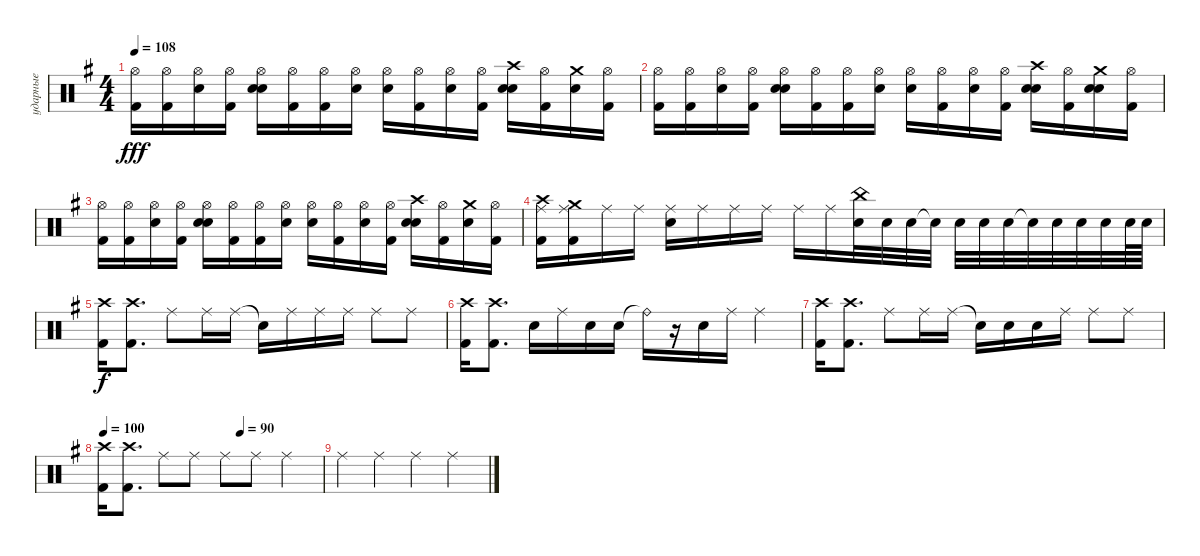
\track ("ударные" "ударные") {instrument percussion}
\staff {score}
\articulation defaults
\ts (4 4)
\tempo 108
\clef neutral
\ks eminor
("Hi-Hat (open)" "Kick (hit) 2").16{dy fff} ("Hi-Hat (open)" "Kick (hit) 2").16 ("Hi-Hat (open)" "Snare (hit)").16 ("Hi-Hat (open)" "Kick (hit) 2").16 ("Hi-Hat (open)" "Snare (hit) 2" "Snare (hit)").16 ("Hi-Hat (open)" "Kick (hit) 2").16 ("Hi-Hat (open)" "Kick (hit) 2").16 ("Hi-Hat (open)" "Snare (hit)").16 ("Hi-Hat (open)" "Snare (hit)").16 ("Hi-Hat (open)" "Kick (hit) 2").16 ("Hi-Hat (open)" "Snare (hit)").16 ("Hi-Hat (open)" "Kick (hit) 2").16 ("Crash high (hit)" "Snare (hit) 2" "Snare (hit)").16 ("Hi-Hat (open)" "Kick (hit) 2").16 ("Crash medium (hit)" "Snare (hit)").16 ("Hi-Hat (open)" "Kick (hit) 2").16 |
("Hi-Hat (open)" "Kick (hit) 2").16 ("Hi-Hat (open)" "Kick (hit) 2").16 ("Hi-Hat (open)" "Snare (hit)").16 ("Hi-Hat (open)" "Kick (hit) 2").16 ("Hi-Hat (open)" "Snare (hit) 2" "Snare (hit)").16 ("Hi-Hat (open)" "Kick (hit) 2").16 ("Hi-Hat (open)" "Kick (hit) 2").16 ("Hi-Hat (open)" "Snare (hit)").16 ("Hi-Hat (open)" "Snare (hit)").16 ("Hi-Hat (open)" "Kick (hit) 2").16 ("Hi-Hat (open)" "Snare (hit)").16 ("Hi-Hat (open)" "Kick (hit) 2").16 ("Crash high (hit)" "Snare (hit) 2" "Snare (hit)").16 ("Hi-Hat (open)" "Kick (hit) 2").16 ("Crash medium (hit)" "Snare (hit) 2" "Snare (hit)").16 ("Hi-Hat (open)" "Kick (hit) 2").16 |
("Hi-Hat (open)" "Kick (hit) 2").16 ("Hi-Hat (open)" "Kick (hit) 2").16 ("Hi-Hat (open)" "Snare (hit)").16 ("Hi-Hat (open)" "Kick (hit) 2").16 ("Hi-Hat (open)" "Snare (hit) 2" "Snare (hit)").16 ("Hi-Hat (open)" "Kick (hit) 2").16 ("Hi-Hat (open)" "Kick (hit) 2").16 ("Hi-Hat (open)" "Snare (hit)").16 ("Hi-Hat (open)" "Snare (hit)").16 ("Hi-Hat (open)" "Kick (hit) 2").16 ("Hi-Hat (open)" "Snare (hit)").16 ("Hi-Hat (open)" "Kick (hit) 2").16 ("Crash high (hit)" "Snare (hit) 2" "Snare (hit)").16 ("Hi-Hat (open)" "Kick (hit) 2").16 ("Crash medium (hit)" "Snare (hit)").16 ("Hi-Hat (open)" "Kick (hit) 2").16 |
("Crash high (hit)" "Ride (middle)" "Kick (hit) 2").16 ("Crash medium (hit)" "Ride (middle)" "Kick (hit) 2").16 "Ride (middle)".16 "Ride (middle)".16 ("Ride (middle)" "Snare (hit) 2").16 "Ride (middle)".16 "Ride (middle)".16 "Ride (middle)".16 "Ride (middle)".16 "Ride (middle)".16 ("China (hit)" "Snare (hit) 2").32 "Snare (hit) 2".32 "Snare (hit) 2".32 "Snare (hit) 2"{t}.32 "Snare (hit) 2".32 "Snare (hit) 2".32 "Snare (hit) 2".32 "Snare (hit) 2"{t}.32 "Snare (hit) 2".32 "Snare (hit) 2".32 "Snare (hit) 2".32 "Snare (hit) 2".64 "Snare (hit) 2".64 |
("Crash high (hit)" "Kick (hit) 2").16{dy f} ("Crash high (hit)" "Kick (hit) 2").8{d} "Ride (middle)".8 "Ride (middle)".16 "Ride (middle)".16 "Snare (hit)"{t}.16 "Ride (middle)".16 "Ride (middle)".16 "Ride (middle)".16 "Ride (middle)".8 "Ride (middle)".8 |
("Crash high (hit)" "Kick (hit) 2").16 ("Crash high (hit)" "Kick (hit) 2").8{d} "Snare (hit)".16 "Ride (middle)".16 "Snare (hit)".16 "Snare (hit)".16 "Ride (bell)"{t}.16 r.16 "Snare (hit)".16 "Ride (middle)".16 "Ride (middle)".4 |
("Crash high (hit)" "Kick (hit) 2").16 ("Crash high (hit)" "Kick (hit) 2").8{d} "Ride (middle)".8 "Ride (middle)".16 "Ride (middle)".16 "Snare (hit)"{t}.16 "Snare (hit)".16 "Snare (hit)".16 "Ride (middle)".16 "Ride (middle)".8 "Ride (middle)".8 |
\tempo 100
\tempo (90 0.625)
("Crash high (hit)" "Kick (hit) 2").16 ("Crash high (hit)" "Kick (hit) 2").8{d} "Ride (middle)".8 "Ride (middle)".8 "Ride (middle)".8 "Ride (middle)".8 "Ride (middle)".4 |
"Ride (middle)".4 "Ride (middle)".4 "Ride (middle)".4 "Ride (middle)".4
